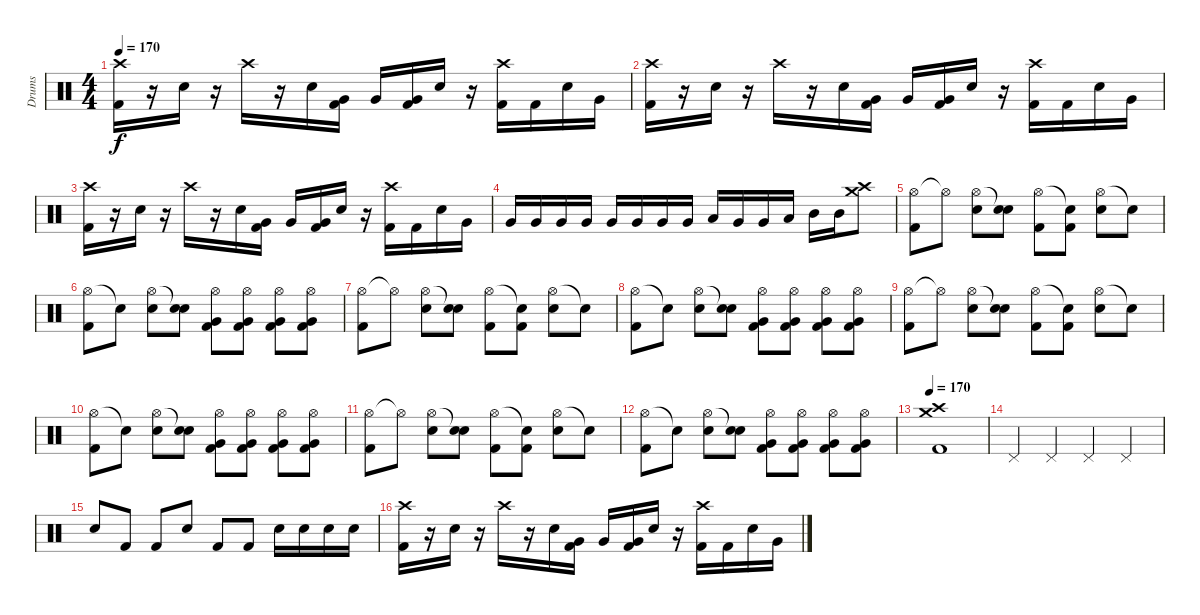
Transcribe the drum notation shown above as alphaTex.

\track ("Drums" "Drums") {instrument percussion}
\staff {score}
\articulation defaults
\ts (4 4)
\tempo 170
\clef neutral
\ks c
("Crash high (hit)" "Kick (hit) 2").16{dy f} r.16 "Electric Snare (hit)".16 r.16 "Crash high (hit)".16 r.16 "Electric Snare (hit)".16 ("Very Low Tom (hit)" "Kick (hit) 2").16 "Very Low Tom (hit)".16 ("Very Low Tom (hit)" "Kick (hit) 2").16 "Electric Snare (hit)".16 r.16 ("Crash high (hit)" "Kick (hit) 2").16 "Kick (hit) 2".16 "Electric Snare (hit)".16 "Very Low Tom (hit)".16 |
("Crash high (hit)" "Kick (hit) 2").16 r.16 "Electric Snare (hit)".16 r.16 "Crash high (hit)".16 r.16 "Electric Snare (hit)".16 ("Very Low Tom (hit)" "Kick (hit) 2").16 "Very Low Tom (hit)".16 ("Very Low Tom (hit)" "Kick (hit) 2").16 "Electric Snare (hit)".16 r.16 ("Crash high (hit)" "Kick (hit) 2").16 "Kick (hit) 2".16 "Electric Snare (hit)".16 "Very Low Tom (hit)".16 |
("Crash high (hit)" "Kick (hit) 2").16 r.16 "Electric Snare (hit)".16 r.16 "Crash high (hit)".16 r.16 "Electric Snare (hit)".16 ("Very Low Tom (hit)" "Kick (hit) 2").16 "Very Low Tom (hit)".16 ("Very Low Tom (hit)" "Kick (hit) 2").16 "Electric Snare (hit)".16 r.16 ("Crash high (hit)" "Kick (hit) 2").16 "Kick (hit) 2".16 "Electric Snare (hit)".16 "Very Low Tom (hit)".16 |
"Very Low Tom (hit)".16 "Very Low Tom (hit)".16 "Very Low Tom (hit)".16 "Very Low Tom (hit)".16 "Very Low Tom (hit)".16 "Very Low Tom (hit)".16 "Very Low Tom (hit)".16 "Very Low Tom (hit)".16 "Low Tom (hit)".16 "Very Low Tom (hit)".16 "Very Low Tom (hit)".16 "Low Tom (hit)".16 "Mid Tom (hit)".16 "Mid Tom (hit)".16 ("Crash high (hit)" "Crash medium (hit)").8 |
("Hi-Hat (open)" "Kick (hit) 2").8 "Hi-Hat (open)"{t}.8 ("Hi-Hat (open)" "Electric Snare (hit)").8 ("Snare (hit)"{t} "Electric Snare (hit)").8 ("Hi-Hat (open)" "Kick (hit) 2").8 ("Snare (hit)"{t} "Kick (hit) 2").8 ("Hi-Hat (open)" "Electric Snare (hit)").8 "Snare (hit)"{t}.8 |
("Hi-Hat (open)" "Kick (hit) 2").8 "Snare (hit)"{t}.8 ("Hi-Hat (open)" "Electric Snare (hit)").8 ("Snare (hit)"{t} "Electric Snare (hit)").8 ("Hi-Hat (open)" "Kick (hit) 2" "Very Low Tom (hit)").8 ("Hi-Hat (open)" "Kick (hit) 2" "Very Low Tom (hit)").8 ("Hi-Hat (open)" "Kick (hit) 2" "Very Low Tom (hit)").8 ("Hi-Hat (open)" "Kick (hit) 2" "Very Low Tom (hit)").8 |
("Hi-Hat (open)" "Kick (hit) 2").8 "Hi-Hat (open)"{t}.8 ("Hi-Hat (open)" "Electric Snare (hit)").8 ("Snare (hit)"{t} "Electric Snare (hit)").8 ("Hi-Hat (open)" "Kick (hit) 2").8 ("Snare (hit)"{t} "Kick (hit) 2").8 ("Hi-Hat (open)" "Electric Snare (hit)").8 "Snare (hit)"{t}.8 |
("Hi-Hat (open)" "Kick (hit) 2").8 "Snare (hit)"{t}.8 ("Hi-Hat (open)" "Electric Snare (hit)").8 ("Snare (hit)"{t} "Electric Snare (hit)").8 ("Hi-Hat (open)" "Kick (hit) 2" "Very Low Tom (hit)").8 ("Hi-Hat (open)" "Kick (hit) 2" "Very Low Tom (hit)").8 ("Hi-Hat (open)" "Kick (hit) 2" "Very Low Tom (hit)").8 ("Hi-Hat (open)" "Kick (hit) 2" "Very Low Tom (hit)").8 |
("Hi-Hat (open)" "Kick (hit) 2").8 "Hi-Hat (open)"{t}.8 ("Hi-Hat (open)" "Electric Snare (hit)").8 ("Snare (hit)"{t} "Electric Snare (hit)").8 ("Hi-Hat (open)" "Kick (hit) 2").8 ("Snare (hit)"{t} "Kick (hit) 2").8 ("Hi-Hat (open)" "Electric Snare (hit)").8 "Snare (hit)"{t}.8 |
("Hi-Hat (open)" "Kick (hit) 2").8 "Snare (hit)"{t}.8 ("Hi-Hat (open)" "Electric Snare (hit)").8 ("Snare (hit)"{t} "Electric Snare (hit)").8 ("Hi-Hat (open)" "Kick (hit) 2" "Very Low Tom (hit)").8 ("Hi-Hat (open)" "Kick (hit) 2" "Very Low Tom (hit)").8 ("Hi-Hat (open)" "Kick (hit) 2" "Very Low Tom (hit)").8 ("Hi-Hat (open)" "Kick (hit) 2" "Very Low Tom (hit)").8 |
("Hi-Hat (open)" "Kick (hit) 2").8 "Hi-Hat (open)"{t}.8 ("Hi-Hat (open)" "Electric Snare (hit)").8 ("Snare (hit)"{t} "Electric Snare (hit)").8 ("Hi-Hat (open)" "Kick (hit) 2").8 ("Snare (hit)"{t} "Kick (hit) 2").8 ("Hi-Hat (open)" "Electric Snare (hit)").8 "Snare (hit)"{t}.8 |
("Hi-Hat (open)" "Kick (hit) 2").8 "Snare (hit)"{t}.8 ("Hi-Hat (open)" "Electric Snare (hit)").8 ("Snare (hit)"{t} "Electric Snare (hit)").8 ("Hi-Hat (open)" "Kick (hit) 2" "Very Low Tom (hit)").8 ("Hi-Hat (open)" "Kick (hit) 2" "Very Low Tom (hit)").8 ("Hi-Hat (open)" "Kick (hit) 2" "Very Low Tom (hit)").8 ("Hi-Hat (open)" "Kick (hit) 2" "Very Low Tom (hit)").8 |
\tempo 170
("Crash high (hit)" "Crash medium (hit)" "Kick (hit) 2").1 |
"Pedal Hi-Hat (hit)".4 "Pedal Hi-Hat (hit)".4 "Pedal Hi-Hat (hit)".4 "Pedal Hi-Hat (hit)".4 |
"Electric Snare (hit)".8 "Kick (hit) 2".8 "Kick (hit) 2".8 "Electric Snare (hit)".8 "Kick (hit) 2".8 "Kick (hit) 2".8 "Electric Snare (hit)".16 "Electric Snare (hit)".16 "Electric Snare (hit)".16 "Electric Snare (hit)".16 |
("Crash high (hit)" "Kick (hit) 2").16 r.16 "Electric Snare (hit)".16 r.16 "Crash high (hit)".16 r.16 "Electric Snare (hit)".16 ("Very Low Tom (hit)" "Kick (hit) 2").16 "Very Low Tom (hit)".16 ("Very Low Tom (hit)" "Kick (hit) 2").16 "Electric Snare (hit)".16 r.16 ("Crash high (hit)" "Kick (hit) 2").16 "Kick (hit) 2".16 "Electric Snare (hit)".16 "Very Low Tom (hit)".16
